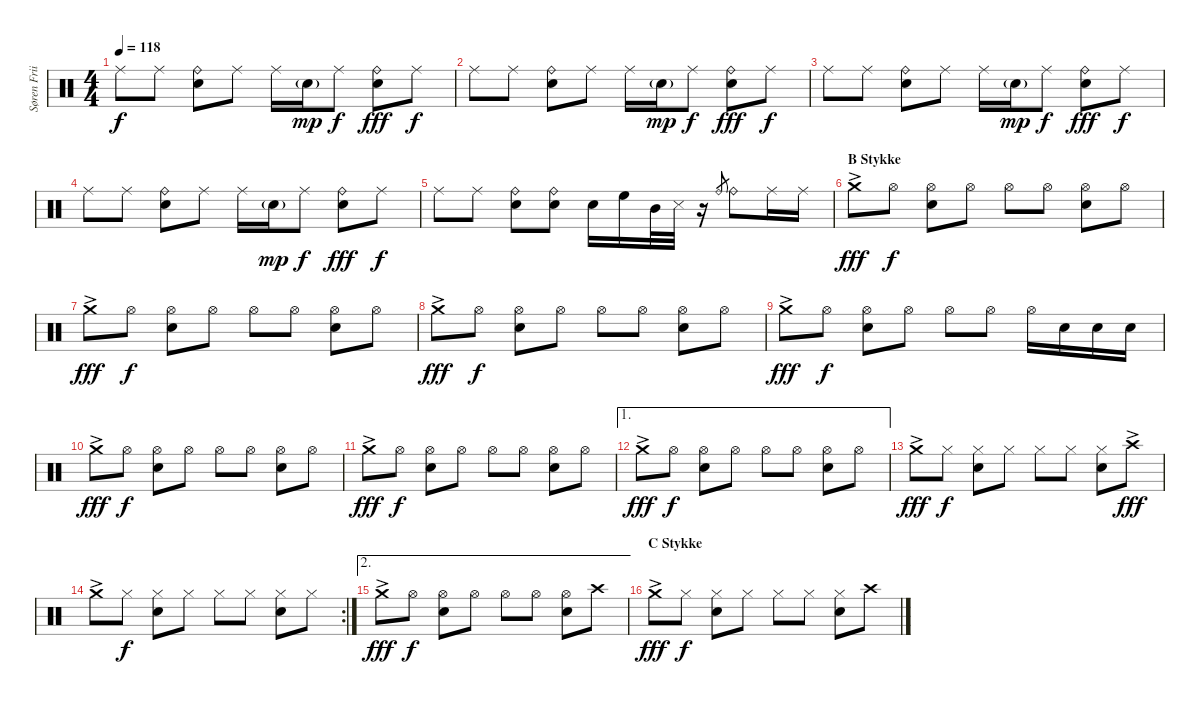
\track ("Søren Friis (Drums)" "Søren Frii") {instrument percussion}
\staff {score}
\articulation defaults
\ts (4 4)
\tempo 118
\clef neutral
\ks c "Ride (middle)".8{dy f} "Ride (middle)".8
("Ride (bell)" "Snare (hit) 2").8 "Ride (middle)".8 "Ride (middle)".16 "Snare (hit) 2"{g}.16{dy mp} "Ride (middle)".8{dy f} ("Ride (bell)" "Snare (hit) 2").8{dy fff} "Ride (middle)".8{dy f} |
"Ride (middle)".8 "Ride (middle)".8 ("Ride (bell)" "Snare (hit) 2").8 "Ride (middle)".8 "Ride (middle)".16 "Snare (hit) 2"{g}.16{dy mp} "Ride (middle)".8{dy f} ("Ride (bell)" "Snare (hit) 2").8{dy fff} "Ride (middle)".8{dy f} |
"Ride (middle)".8 "Ride (middle)".8 ("Ride (bell)" "Snare (hit) 2").8 "Ride (middle)".8 "Ride (middle)".16 "Snare (hit) 2"{g}.16{dy mp} "Ride (middle)".8{dy f} ("Ride (bell)" "Snare (hit) 2").8{dy fff} "Ride (middle)".8{dy f} |
"Ride (middle)".8 "Ride (middle)".8 ("Ride (bell)" "Snare (hit) 2").8 "Ride (middle)".8 "Ride (middle)".16 "Snare (hit) 2"{g}.16{dy mp} "Ride (middle)".8{dy f} ("Ride (bell)" "Snare (hit) 2").8{dy fff} "Ride (middle)".8{dy f} |
"Ride (middle)".8 "Ride (middle)".8 ("Ride (bell)" "Snare (hit) 2").8 ("Ride (bell)" "Snare (hit) 2").8 "Snare (hit) 2".16 "High Floor Tom (hit)".16 "Mid Tom (hit)".32 "Snare (side stick) 3".32 r.16 "Ride (bell)".8{gr} "Ride (bell)".8 "Ride (middle)".16 "Ride (middle)".16 |
\section ("" "B Stykke")
"Crash medium (hit)"{ac}.8{dy fff} "Hi-Hat (open)".8{dy f} ("Hi-Hat (open)" "Snare (hit) 2").8 "Hi-Hat (open)".8 "Hi-Hat (open)".8 "Hi-Hat (open)".8 ("Hi-Hat (open)" "Snare (hit) 2").8 "Hi-Hat (open)".8 |
"Crash medium (hit)"{ac}.8{dy fff} "Hi-Hat (open)".8{dy f} ("Hi-Hat (open)" "Snare (hit) 2").8 "Hi-Hat (open)".8 "Hi-Hat (open)".8 "Hi-Hat (open)".8 ("Hi-Hat (open)" "Snare (hit) 2").8 "Hi-Hat (open)".8 |
"Crash medium (hit)"{ac}.8{dy fff} "Hi-Hat (open)".8{dy f} ("Hi-Hat (open)" "Snare (hit) 2").8 "Hi-Hat (open)".8 "Hi-Hat (open)".8 "Hi-Hat (open)".8 ("Hi-Hat (open)" "Snare (hit) 2").8 "Hi-Hat (open)".8 |
"Crash medium (hit)"{ac}.8{dy fff} "Hi-Hat (open)".8{dy f} ("Hi-Hat (open)" "Snare (hit) 2").8 "Hi-Hat (open)".8 "Hi-Hat (open)".8 "Hi-Hat (open)".8 "Hi-Hat (open)".16 "Snare (hit) 2".16 "Snare (hit) 2".16 "Snare (hit) 2".16 |
"Crash medium (hit)"{ac}.8{dy fff} "Hi-Hat (open)".8{dy f} ("Hi-Hat (open)" "Snare (hit) 2").8 "Hi-Hat (open)".8 "Hi-Hat (open)".8 "Hi-Hat (open)".8 ("Hi-Hat (open)" "Snare (hit) 2").8 "Hi-Hat (open)".8 |
"Crash medium (hit)"{ac}.8{dy fff} "Hi-Hat (open)".8{dy f} ("Hi-Hat (open)" "Snare (hit) 2").8 "Hi-Hat (open)".8 "Hi-Hat (open)".8 "Hi-Hat (open)".8 ("Hi-Hat (open)" "Snare (hit) 2").8 "Hi-Hat (open)".8 |
\ae 1 "Crash medium (hit)"{ac}.8{dy fff} "Hi-Hat (open)".8{dy f}
("Hi-Hat (open)" "Snare (hit) 2").8 "Hi-Hat (open)".8 "Hi-Hat (open)".8 "Hi-Hat (open)".8 ("Hi-Hat (open)" "Snare (hit) 2").8 "Hi-Hat (open)".8 |
"Crash medium (hit)"{ac}.8{dy fff} "Hi-Hat (closed)".8{dy f} ("Hi-Hat (closed)" "Snare (hit) 2").8 "Hi-Hat (closed)".8 "Hi-Hat (closed)".8 "Hi-Hat (closed)".8 ("Hi-Hat (closed)" "Snare (hit) 2").8 "Crash high (hit)"{ac}.8{dy fff} |
\rc 2 "Crash medium (hit)"{ac}.8 "Hi-Hat (closed)".8{dy f}
("Snare (hit) 2" "Hi-Hat (closed)").8 "Hi-Hat (closed)".8 "Hi-Hat (closed)".8 "Hi-Hat (closed)".8 ("Snare (hit) 2" "Hi-Hat (closed)").8 "Hi-Hat (closed)".8 |
\ae 2 "Crash medium (hit)"{ac}.8{dy fff} "Hi-Hat (open)".8{dy f}
("Hi-Hat (open)" "Snare (hit) 2").8 "Hi-Hat (open)".8 "Hi-Hat (open)".8 "Hi-Hat (open)".8 ("Hi-Hat (open)" "Snare (hit) 2").8 "Crash high (hit)".8 |
\section ("" "C Stykke")
"Crash medium (hit)"{ac}.8{dy fff} "Hi-Hat (closed)".8{dy f} ("Hi-Hat (closed)" "Snare (hit) 2").8 "Hi-Hat (closed)".8 "Hi-Hat (closed)".8 "Hi-Hat (closed)".8 ("Hi-Hat (closed)" "Snare (hit) 2").8 "Crash high (hit)".8
